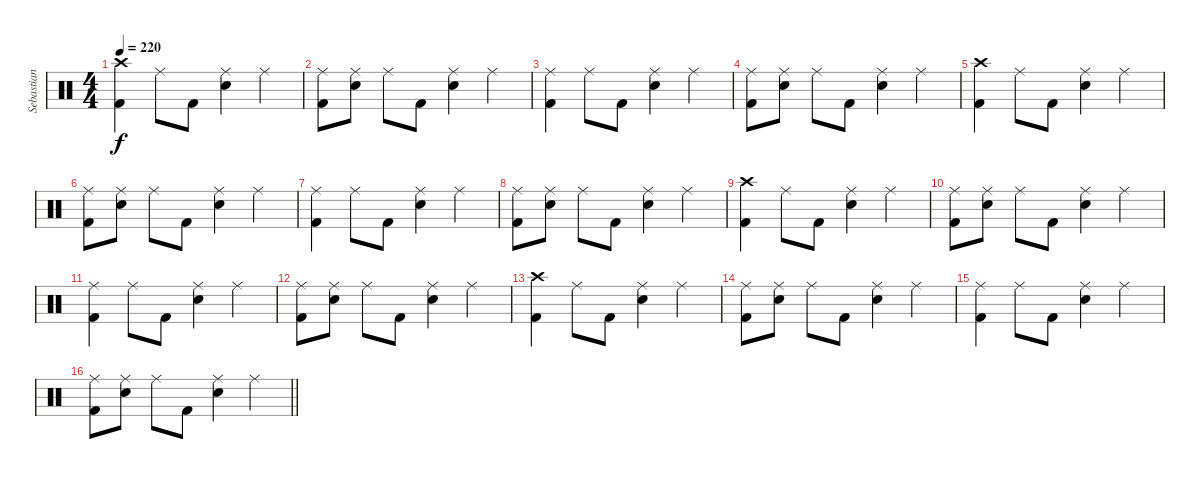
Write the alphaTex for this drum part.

\track ("Sebastian" "Sebastian") {instrument percussion}
\staff {score}
\articulation defaults
\ts (4 4)
\tempo 220
\clef neutral
\ks c
("Crash high (hit)" "Kick (hit) 2").4{dy f} "Ride (middle)".8 "Kick (hit) 2".8 ("Ride (middle)" "Snare (hit) 2").4 "Ride (middle)".4 |
("Ride (middle)" "Kick (hit) 2").8 ("Ride (middle)" "Snare (hit) 2").8 "Ride (middle)".8 "Kick (hit) 2".8 ("Ride (middle)" "Snare (hit) 2").4 "Ride (middle)".4 |
("Ride (middle)" "Kick (hit) 2").4 "Ride (middle)".8 "Kick (hit) 2".8 ("Ride (middle)" "Snare (hit) 2").4 "Ride (middle)".4 |
("Ride (middle)" "Kick (hit) 2").8 ("Ride (middle)" "Snare (hit) 2").8 "Ride (middle)".8 "Kick (hit) 2".8 ("Ride (middle)" "Snare (hit) 2").4 "Ride (middle)".4 |
("Crash high (hit)" "Kick (hit) 2").4 "Ride (middle)".8 "Kick (hit) 2".8 ("Ride (middle)" "Snare (hit) 2").4 "Ride (middle)".4 |
("Ride (middle)" "Kick (hit) 2").8 ("Ride (middle)" "Snare (hit) 2").8 "Ride (middle)".8 "Kick (hit) 2".8 ("Ride (middle)" "Snare (hit) 2").4 "Ride (middle)".4 |
("Ride (middle)" "Kick (hit) 2").4 "Ride (middle)".8 "Kick (hit) 2".8 ("Ride (middle)" "Snare (hit) 2").4 "Ride (middle)".4 |
("Ride (middle)" "Kick (hit) 2").8 ("Ride (middle)" "Snare (hit) 2").8 "Ride (middle)".8 "Kick (hit) 2".8 ("Ride (middle)" "Snare (hit) 2").4 "Ride (middle)".4 |
("Crash high (hit)" "Kick (hit) 2").4 "Ride (middle)".8 "Kick (hit) 2".8 ("Ride (middle)" "Snare (hit) 2").4 "Ride (middle)".4 |
("Ride (middle)" "Kick (hit) 2").8 ("Ride (middle)" "Snare (hit) 2").8 "Ride (middle)".8 "Kick (hit) 2".8 ("Ride (middle)" "Snare (hit) 2").4 "Ride (middle)".4 |
("Ride (middle)" "Kick (hit) 2").4 "Ride (middle)".8 "Kick (hit) 2".8 ("Ride (middle)" "Snare (hit) 2").4 "Ride (middle)".4 |
("Ride (middle)" "Kick (hit) 2").8 ("Ride (middle)" "Snare (hit) 2").8 "Ride (middle)".8 "Kick (hit) 2".8 ("Ride (middle)" "Snare (hit) 2").4 "Ride (middle)".4 |
("Crash high (hit)" "Kick (hit) 2").4 "Ride (middle)".8 "Kick (hit) 2".8 ("Ride (middle)" "Snare (hit) 2").4 "Ride (middle)".4 |
("Ride (middle)" "Kick (hit) 2").8 ("Ride (middle)" "Snare (hit) 2").8 "Ride (middle)".8 "Kick (hit) 2".8 ("Ride (middle)" "Snare (hit) 2").4 "Ride (middle)".4 |
("Ride (middle)" "Kick (hit) 2").4 "Ride (middle)".8 "Kick (hit) 2".8 ("Ride (middle)" "Snare (hit) 2").4 "Ride (middle)".4 |
\barLineRight lightlight
("Ride (middle)" "Kick (hit) 2").8 ("Ride (middle)" "Snare (hit) 2").8 "Ride (middle)".8 "Kick (hit) 2".8 ("Ride (middle)" "Snare (hit) 2").4 "Ride (middle)".4
